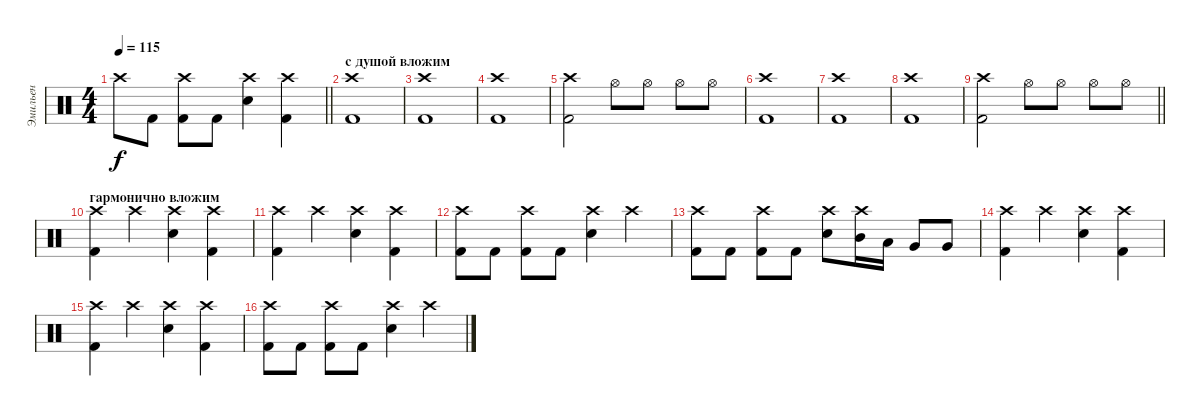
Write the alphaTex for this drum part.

\track ("Эмильен" "Эмильен") {instrument percussion}
\staff {score}
\articulation defaults
\ts (4 4)
\tempo 115
\clef neutral
\barLineRight lightlight
\ks c "Crash high (hit)".8{dy f} "Kick (hit) 2".8
("Crash high (hit)" "Kick (hit) 2").8 "Kick (hit) 2".8 ("Crash high (hit)" "Snare (hit) 2").4 ("Crash high (hit)" "Kick (hit) 2").4 |
\section ("" "с душой вложим")
("Crash high (hit)" "Kick (hit) 2").1 |
("Crash high (hit)" "Kick (hit) 2").1 |
("Crash high (hit)" "Kick (hit) 2").1 |
("Crash high (hit)" "Kick (hit) 2").2 "Hi-Hat (open)".8 "Hi-Hat (open)".8 "Hi-Hat (open)".8 "Hi-Hat (open)".8 |
("Crash high (hit)" "Kick (hit) 2").1 |
("Crash high (hit)" "Kick (hit) 2").1 |
("Crash high (hit)" "Kick (hit) 2").1 |
\barLineRight lightlight
("Crash high (hit)" "Kick (hit) 2").2 "Hi-Hat (open)".8 "Hi-Hat (open)".8 "Hi-Hat (open)".8 "Hi-Hat (open)".8 |
\section ("" "гармонично вложим")
("Crash high (hit)" "Kick (hit) 2").4 "Crash high (hit)".4 ("Crash high (hit)" "Snare (hit) 2").4 ("Crash high (hit)" "Kick (hit) 2").4 |
("Crash high (hit)" "Kick (hit) 2").4 "Crash high (hit)".4 ("Crash high (hit)" "Snare (hit) 2").4 ("Crash high (hit)" "Kick (hit) 2").4 |
("Crash high (hit)" "Kick (hit) 2").8 "Kick (hit) 2".8 ("Crash high (hit)" "Kick (hit) 2").8 "Kick (hit) 2".8 ("Crash high (hit)" "Snare (hit) 2").4 "Crash high (hit)".4 |
("Crash high (hit)" "Kick (hit) 2").8 "Kick (hit) 2".8 ("Crash high (hit)" "Kick (hit) 2").8 "Kick (hit) 2".8 ("Crash high (hit)" "Snare (hit) 2").8 ("Crash high (hit)" "Mid Tom (hit)").16 "Low Tom (hit)".16 "Very Low Tom (hit)".8 "Very Low Tom (hit)".8 |
("Crash high (hit)" "Kick (hit) 2").4 "Crash high (hit)".4 ("Crash high (hit)" "Snare (hit) 2").4 ("Crash high (hit)" "Kick (hit) 2").4 |
("Crash high (hit)" "Kick (hit) 2").4 "Crash high (hit)".4 ("Crash high (hit)" "Snare (hit) 2").4 ("Crash high (hit)" "Kick (hit) 2").4 |
("Crash high (hit)" "Kick (hit) 2").8 "Kick (hit) 2".8 ("Crash high (hit)" "Kick (hit) 2").8 "Kick (hit) 2".8 ("Crash high (hit)" "Snare (hit) 2").4 "Crash high (hit)".4
